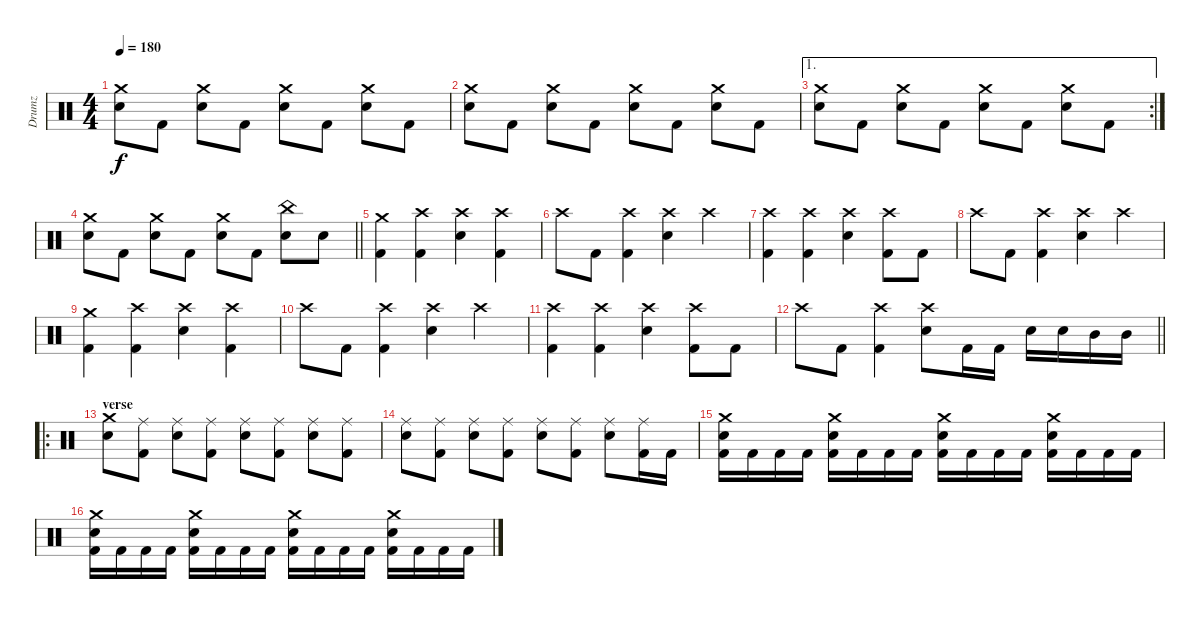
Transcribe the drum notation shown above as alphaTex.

\track ("Drumz" "Drumz") {instrument percussion}
\staff {score}
\articulation defaults
\ts (4 4)
\tempo 180
\clef neutral
\ks c
("Crash medium (hit)" "Electric Snare (hit)").8{dy f} "Kick (hit) 2".8 ("Crash medium (hit)" "Electric Snare (hit)").8 "Kick (hit) 2".8 ("Crash medium (hit)" "Electric Snare (hit)").8 "Kick (hit) 2".8 ("Crash medium (hit)" "Electric Snare (hit)").8 "Kick (hit) 2".8 |
("Crash medium (hit)" "Electric Snare (hit)").8 "Kick (hit) 2".8 ("Crash medium (hit)" "Electric Snare (hit)").8 "Kick (hit) 2".8 ("Crash medium (hit)" "Electric Snare (hit)").8 "Kick (hit) 2".8 ("Crash medium (hit)" "Electric Snare (hit)").8 "Kick (hit) 2".8 |
\ae 1
\rc 2
("Crash medium (hit)" "Electric Snare (hit)").8 "Kick (hit) 2".8 ("Crash medium (hit)" "Electric Snare (hit)").8 "Kick (hit) 2".8 ("Crash medium (hit)" "Electric Snare (hit)").8 "Kick (hit) 2".8 ("Crash medium (hit)" "Electric Snare (hit)").8 "Kick (hit) 2".8 |
\barLineRight lightlight
("Crash medium (hit)" "Electric Snare (hit)").8 "Kick (hit) 2".8 ("Crash medium (hit)" "Electric Snare (hit)").8 "Kick (hit) 2".8 ("Crash medium (hit)" "Electric Snare (hit)").8 "Kick (hit) 2".8 ("China (hit)" "Electric Snare (hit)").8 "Electric Snare (hit)".8 |
\section ("" "")
("Crash medium (hit)" "Kick (hit) 2").4 ("Crash high (hit)" "Kick (hit) 2").4 ("Crash high (hit)" "Electric Snare (hit)").4 ("Crash high (hit)" "Kick (hit) 2").4 |
"Crash high (hit)".8 "Kick (hit) 2".8 ("Crash high (hit)" "Kick (hit) 2").4 ("Crash high (hit)" "Electric Snare (hit)").4 "Crash high (hit)".4 |
("Crash high (hit)" "Kick (hit) 2").4 ("Crash high (hit)" "Kick (hit) 2").4 ("Crash high (hit)" "Electric Snare (hit)").4 ("Crash high (hit)" "Kick (hit) 2").8 "Kick (hit) 2".8 |
"Crash high (hit)".8 "Kick (hit) 2".8 ("Crash high (hit)" "Kick (hit) 2").4 ("Crash high (hit)" "Electric Snare (hit)").4 "Crash high (hit)".4 |
("Crash medium (hit)" "Kick (hit) 2").4 ("Crash high (hit)" "Kick (hit) 2").4 ("Crash high (hit)" "Electric Snare (hit)").4 ("Crash high (hit)" "Kick (hit) 2").4 |
"Crash high (hit)".8 "Kick (hit) 2".8 ("Crash high (hit)" "Kick (hit) 2").4 ("Crash high (hit)" "Electric Snare (hit)").4 "Crash high (hit)".4 |
("Crash high (hit)" "Kick (hit) 2").4 ("Crash high (hit)" "Kick (hit) 2").4 ("Crash high (hit)" "Electric Snare (hit)").4 ("Crash high (hit)" "Kick (hit) 2").8 "Kick (hit) 2".8 |
\barLineRight lightlight "Crash high (hit)".8 "Kick (hit) 2".8
("Crash high (hit)" "Kick (hit) 2").4 ("Crash high (hit)" "Electric Snare (hit)").8 "Kick (hit) 2".16 "Kick (hit) 2".16 "Electric Snare (hit)".16 "Electric Snare (hit)".16 "Mid Tom (hit)".16 "Mid Tom (hit)".16 |
\ro
\section ("" "verse")
("Crash medium (hit)" "Electric Snare (hit)").8 ("Ride (middle)" "Kick (hit) 2").8 ("Ride (middle)" "Electric Snare (hit)").8 ("Ride (middle)" "Kick (hit) 2").8 ("Ride (middle)" "Electric Snare (hit)").8 ("Ride (middle)" "Kick (hit) 2").8 ("Ride (middle)" "Electric Snare (hit)").8 ("Ride (middle)" "Kick (hit) 2").8 |
("Ride (middle)" "Electric Snare (hit)").8 ("Ride (middle)" "Kick (hit) 2").8 ("Ride (middle)" "Electric Snare (hit)").8 ("Ride (middle)" "Kick (hit) 2").8 ("Ride (middle)" "Electric Snare (hit)").8 ("Ride (middle)" "Kick (hit) 2").8 ("Ride (middle)" "Electric Snare (hit)").8 ("Ride (middle)" "Kick (hit) 2").16 "Kick (hit) 2".16 |
("Crash medium (hit)" "Electric Snare (hit)" "Kick (hit) 2").16 "Kick (hit) 2".16 "Kick (hit) 2".16 "Kick (hit) 2".16 ("Crash medium (hit)" "Electric Snare (hit)" "Kick (hit) 2").16 "Kick (hit) 2".16 "Kick (hit) 2".16 "Kick (hit) 2".16 ("Crash medium (hit)" "Electric Snare (hit)" "Kick (hit) 2").16 "Kick (hit) 2".16 "Kick (hit) 2".16 "Kick (hit) 2".16 ("Crash medium (hit)" "Electric Snare (hit)" "Kick (hit) 2").16 "Kick (hit) 2".16 "Kick (hit) 2".16 "Kick (hit) 2".16 |
("Crash medium (hit)" "Electric Snare (hit)" "Kick (hit) 2").16 "Kick (hit) 2".16 "Kick (hit) 2".16 "Kick (hit) 2".16 ("Crash medium (hit)" "Electric Snare (hit)" "Kick (hit) 2").16 "Kick (hit) 2".16 "Kick (hit) 2".16 "Kick (hit) 2".16 ("Crash medium (hit)" "Electric Snare (hit)" "Kick (hit) 2").16 "Kick (hit) 2".16 "Kick (hit) 2".16 "Kick (hit) 2".16 ("Crash medium (hit)" "Electric Snare (hit)" "Kick (hit) 2").16 "Kick (hit) 2".16 "Kick (hit) 2".16 "Kick (hit) 2".16
